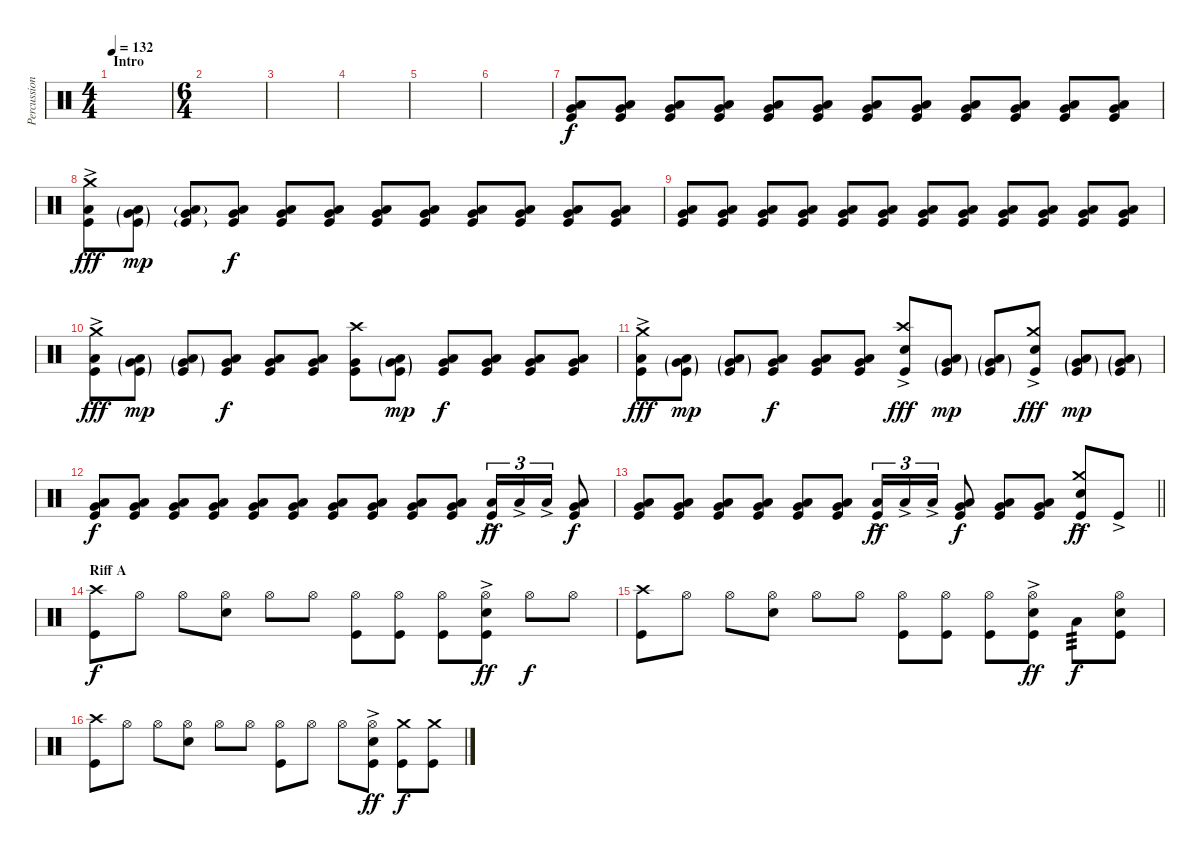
\track ("Percussion" "Percussion") {instrument percussion}
\staff {score}
\articulation defaults
\ts (4 4)
\section ("" "Intro")
\tempo 132
\clef neutral
\ks c
|
\ts (6 4)
|
|
|
|
|
("Kick (hit)" "Low Floor Tom (hit)" "Very Low Tom (hit)").8{volume 7} ("Kick (hit)" "Low Floor Tom (hit)" "Very Low Tom (hit)").8 ("Kick (hit)" "Low Floor Tom (hit)" "Very Low Tom (hit)").8 ("Kick (hit)" "Low Floor Tom (hit)" "Very Low Tom (hit)").8 ("Kick (hit)" "Low Floor Tom (hit)" "Very Low Tom (hit)").8 ("Kick (hit)" "Low Floor Tom (hit)" "Very Low Tom (hit)").8 ("Kick (hit)" "Low Floor Tom (hit)" "Very Low Tom (hit)").8 ("Kick (hit)" "Low Floor Tom (hit)" "Very Low Tom (hit)").8 ("Kick (hit)" "Low Floor Tom (hit)" "Very Low Tom (hit)").8 ("Kick (hit)" "Low Floor Tom (hit)" "Very Low Tom (hit)").8 ("Kick (hit)" "Low Floor Tom (hit)" "Very Low Tom (hit)").8{volume 11} ("Kick (hit)" "Low Floor Tom (hit)" "Very Low Tom (hit)").8 |
("Kick (hit)"{ac} "Crash medium (hit)"{ac} "Low Floor Tom (hit)"{ac}).8{dy fff} ("Kick (hit)"{g} "Low Floor Tom (hit)"{g} "Very Low Tom (hit)"{g}).8{dy mp} ("Kick (hit)"{g} "Low Floor Tom (hit)"{g} "Very Low Tom (hit)").8{volume 0} ("Kick (hit)" "Low Floor Tom (hit)" "Very Low Tom (hit)").8{dy f} ("Kick (hit)" "Low Floor Tom (hit)" "Very Low Tom (hit)").8 ("Kick (hit)" "Low Floor Tom (hit)" "Very Low Tom (hit)").8 ("Kick (hit)" "Low Floor Tom (hit)" "Very Low Tom (hit)").8 ("Kick (hit)" "Low Floor Tom (hit)" "Very Low Tom (hit)").8 ("Kick (hit)" "Low Floor Tom (hit)" "Very Low Tom (hit)").8 ("Kick (hit)" "Low Floor Tom (hit)" "Very Low Tom (hit)").8 ("Kick (hit)" "Low Floor Tom (hit)" "Very Low Tom (hit)").8 ("Kick (hit)" "Low Floor Tom (hit)" "Very Low Tom (hit)").8 |
("Kick (hit)" "Low Floor Tom (hit)" "Very Low Tom (hit)").8{volume 7} ("Kick (hit)" "Low Floor Tom (hit)" "Very Low Tom (hit)").8 ("Kick (hit)" "Low Floor Tom (hit)" "Very Low Tom (hit)").8 ("Kick (hit)" "Low Floor Tom (hit)" "Very Low Tom (hit)").8 ("Kick (hit)" "Low Floor Tom (hit)" "Very Low Tom (hit)").8 ("Kick (hit)" "Low Floor Tom (hit)" "Very Low Tom (hit)").8 ("Kick (hit)" "Low Floor Tom (hit)" "Very Low Tom (hit)").8 ("Kick (hit)" "Low Floor Tom (hit)" "Very Low Tom (hit)").8 ("Kick (hit)" "Low Floor Tom (hit)" "Very Low Tom (hit)").8 ("Kick (hit)" "Low Floor Tom (hit)" "Very Low Tom (hit)").8 ("Kick (hit)" "Low Floor Tom (hit)" "Very Low Tom (hit)").8{volume 11} ("Kick (hit)" "Low Floor Tom (hit)" "Very Low Tom (hit)").8 |
("Kick (hit)"{ac} "Crash medium (hit)"{ac} "Low Floor Tom (hit)"{ac}).8{dy fff} ("Kick (hit)"{g} "Low Floor Tom (hit)"{g} "Very Low Tom (hit)"{g}).8{dy mp} ("Kick (hit)"{g} "Low Floor Tom (hit)"{g} "Very Low Tom (hit)"{g}).8{volume 0} ("Kick (hit)" "Low Floor Tom (hit)" "Very Low Tom (hit)").8{dy f} ("Kick (hit)" "Low Floor Tom (hit)" "Very Low Tom (hit)").8{volume 11} ("Kick (hit)" "Low Floor Tom (hit)" "Very Low Tom (hit)").8 ("Kick (hit)" "Crash high (hit)" "Very Low Tom (hit)").8 ("Kick (hit)"{g} "Low Floor Tom (hit)"{g} "Very Low Tom (hit)"{g}).8{dy mp} ("Kick (hit)" "Low Floor Tom (hit)" "Very Low Tom (hit)").8{dy f volume 0} ("Kick (hit)" "Low Floor Tom (hit)" "Very Low Tom (hit)").8 ("Kick (hit)" "Low Floor Tom (hit)" "Very Low Tom (hit)").8{volume 11} ("Kick (hit)" "Low Floor Tom (hit)" "Very Low Tom (hit)").8 |
("Kick (hit)"{ac} "Crash medium (hit)"{ac} "Low Floor Tom (hit)"{ac}).8{dy fff volume 11} ("Kick (hit)"{g} "Low Floor Tom (hit)"{g} "Very Low Tom (hit)"{g}).8{dy mp} ("Kick (hit)"{g} "Low Floor Tom (hit)"{g} "Very Low Tom (hit)"{g}).8{volume 0} ("Kick (hit)" "Low Floor Tom (hit)" "Very Low Tom (hit)").8{dy f} ("Kick (hit)" "Low Floor Tom (hit)" "Very Low Tom (hit)").8{volume 11} ("Kick (hit)" "Low Floor Tom (hit)" "Very Low Tom (hit)").8 ("Kick (hit)"{ac} "Crash high (hit)" "Snare (hit) 2"{ac}).8{dy fff} ("Kick (hit)"{g} "Low Floor Tom (hit)"{g} "Very Low Tom (hit)"{g}).8{dy mp} ("Kick (hit)"{g} "Low Floor Tom (hit)"{g} "Very Low Tom (hit)"{g}).8 ("Kick (hit)"{ac} "Crash medium (hit)"{ac} "Snare (hit) 2"{ac}).8{dy fff} ("Kick (hit)"{g} "Low Floor Tom (hit)"{g} "Very Low Tom (hit)"{g}).8{dy mp} ("Kick (hit)"{g} "Low Floor Tom (hit)"{g} "Very Low Tom (hit)"{g}).8 |
("Kick (hit)" "Low Floor Tom (hit)" "Very Low Tom (hit)").8{dy f} ("Kick (hit)" "Low Floor Tom (hit)" "Very Low Tom (hit)").8 ("Kick (hit)" "Low Floor Tom (hit)" "Very Low Tom (hit)").8 ("Kick (hit)" "Low Floor Tom (hit)" "Very Low Tom (hit)").8 ("Kick (hit)" "Low Floor Tom (hit)" "Very Low Tom (hit)").8 ("Kick (hit)" "Low Floor Tom (hit)" "Very Low Tom (hit)").8 ("Kick (hit)" "Low Floor Tom (hit)" "Very Low Tom (hit)").8 ("Kick (hit)" "Low Floor Tom (hit)" "Very Low Tom (hit)").8 ("Kick (hit)" "Low Floor Tom (hit)" "Very Low Tom (hit)").8 ("Kick (hit)" "Low Floor Tom (hit)" "Very Low Tom (hit)").8 ("Kick (hit)" "Low Floor Tom (hit)"{ac}).16{tu (3 2) dy ff} "Low Floor Tom (hit)"{ac}.16{tu (3 2)} "Low Floor Tom (hit)"{ac}.16{tu (3 2)} ("Kick (hit)" "Low Floor Tom (hit)" "Very Low Tom (hit)").8{dy f} |
\barLineRight lightlight
("Kick (hit)" "Low Floor Tom (hit)" "Very Low Tom (hit)").8 ("Kick (hit)" "Low Floor Tom (hit)" "Very Low Tom (hit)").8 ("Kick (hit)" "Low Floor Tom (hit)" "Very Low Tom (hit)").8 ("Kick (hit)" "Low Floor Tom (hit)" "Very Low Tom (hit)").8 ("Kick (hit)" "Low Floor Tom (hit)" "Very Low Tom (hit)").8 ("Kick (hit)" "Low Floor Tom (hit)" "Very Low Tom (hit)").8 ("Kick (hit)" "Low Floor Tom (hit)"{ac}).16{tu (3 2) dy ff} "Low Floor Tom (hit)"{ac}.16{tu (3 2)} "Low Floor Tom (hit)"{ac}.16{tu (3 2)} ("Kick (hit)" "Low Floor Tom (hit)" "Very Low Tom (hit)").8{dy f} ("Kick (hit)" "Low Floor Tom (hit)" "Very Low Tom (hit)").8 ("Kick (hit)" "Low Floor Tom (hit)" "Very Low Tom (hit)").8 ("Kick (hit)" "Snare (hit) 2"{ac} "Crash medium (hit)"{ac}).8{dy ff volume 13} "Kick (hit)"{ac}.8 |
\section ("" "Riff A")
("Kick (hit)" "Crash high (hit)").8{dy f} "Hi-Hat (open)".8 "Hi-Hat (open)".8 ("Hi-Hat (open)" "Snare (hit) 2").8 "Hi-Hat (open)".8 "Hi-Hat (open)".8 ("Kick (hit)" "Hi-Hat (open)").8 ("Kick (hit)" "Hi-Hat (open)").8 ("Kick (hit)" "Hi-Hat (open)").8 ("Kick (hit)" "Hi-Hat (open)" "Snare (hit) 2"{ac}).8{dy ff} "Hi-Hat (open)".8{dy f} "Hi-Hat (open)".8 |
("Kick (hit)" "Crash high (hit)").8 "Hi-Hat (open)".8 "Hi-Hat (open)".8 ("Hi-Hat (open)" "Snare (hit) 2").8 "Hi-Hat (open)".8 "Hi-Hat (open)".8 ("Kick (hit)" "Hi-Hat (open)").8 ("Kick (hit)" "Hi-Hat (open)").8 ("Kick (hit)" "Hi-Hat (open)").8 ("Kick (hit)" "Hi-Hat (open)" "Snare (hit) 2"{ac}).8{dy ff} "Low Tom (hit)".8{tp 3 dy f} ("Kick (hit)" "Hi-Hat (open)" "Snare (hit) 2").8 |
("Kick (hit)" "Crash high (hit)").8 "Hi-Hat (open)".8 "Hi-Hat (open)".8 ("Hi-Hat (open)" "Snare (hit) 2").8 "Hi-Hat (open)".8 "Hi-Hat (open)".8 ("Kick (hit)" "Hi-Hat (open)").8 "Hi-Hat (open)".8 "Hi-Hat (open)".8 ("Kick (hit)" "Hi-Hat (open)" "Snare (hit) 2"{ac}).8{dy ff} ("Kick (hit)" "Crash medium (hit)").8{dy f} ("Kick (hit)" "Crash medium (hit)").8
